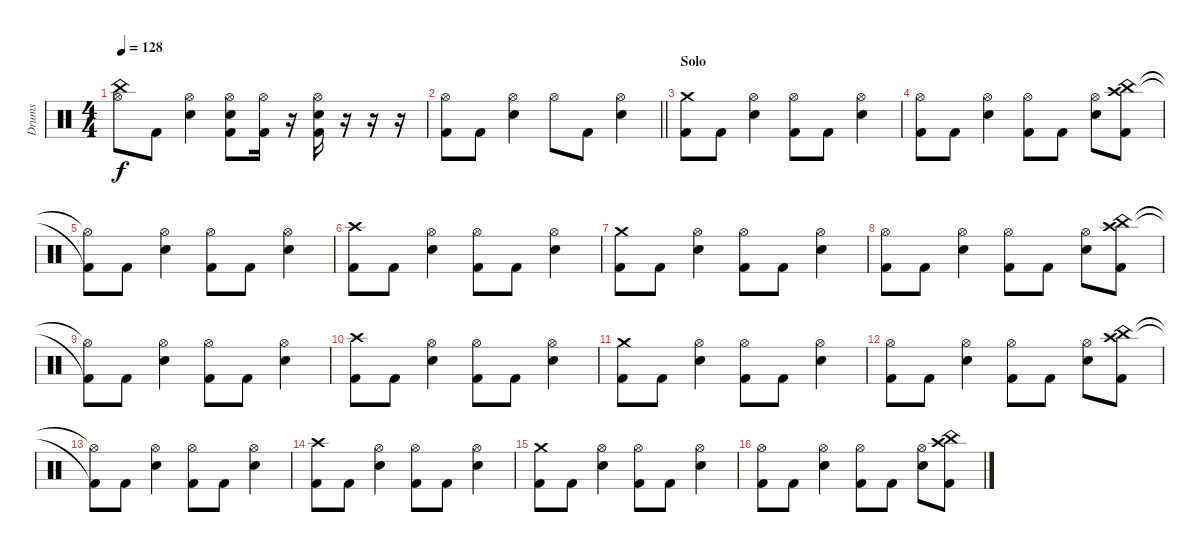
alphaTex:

\track ("Drums" "Drums") {instrument percussion}
\staff {score}
\articulation defaults
\ts (4 4)
\tempo 128
\clef neutral
\ks c
("China (hit)"{t} "Hi-Hat (open)").8{dy f} "Kick (hit) 2".8 ("Hi-Hat (open)" "Electric Snare (hit)").4 ("Electric Snare (hit)" "Hi-Hat (open)" "Kick (hit) 2").8 ("Hi-Hat (open)" "Kick (hit) 2").16 r.16 ("Hi-Hat (open)" "Electric Snare (hit)" "Kick (hit) 2").16 r.16 r.16 r.16 |
\barLineRight lightlight
("Hi-Hat (open)" "Kick (hit) 2").8 "Kick (hit) 2".8 ("Hi-Hat (open)" "Electric Snare (hit)").4 "Hi-Hat (open)".8 "Kick (hit) 2".8 ("Hi-Hat (open)" "Electric Snare (hit)").4 |
\section ("" "Solo")
("Crash medium (hit)" "Kick (hit) 2").8 "Kick (hit) 2".8 ("Hi-Hat (open)" "Electric Snare (hit)").4 ("Hi-Hat (open)" "Kick (hit) 2").8 "Kick (hit) 2".8 ("Hi-Hat (open)" "Electric Snare (hit)").4 |
("Hi-Hat (open)" "Kick (hit) 2").8 "Kick (hit) 2".8 ("Hi-Hat (open)" "Electric Snare (hit)").4 ("Hi-Hat (open)" "Kick (hit) 2").8 "Kick (hit) 2".8 ("Hi-Hat (open)" "Electric Snare (hit)").8 ("China (hit)" "Crash high (hit)" "Kick (hit) 2").8 |
("Hi-Hat (open)"{t} "Kick (hit) 2"{t}).8 "Kick (hit) 2".8 ("Hi-Hat (open)" "Electric Snare (hit)").4 ("Hi-Hat (open)" "Kick (hit) 2").8 "Kick (hit) 2".8 ("Hi-Hat (open)" "Electric Snare (hit)").4 |
("Crash high (hit)" "Kick (hit) 2").8 "Kick (hit) 2".8 ("Hi-Hat (open)" "Electric Snare (hit)").4 ("Hi-Hat (open)" "Kick (hit) 2").8 "Kick (hit) 2".8 ("Hi-Hat (open)" "Electric Snare (hit)").4 |
("Crash medium (hit)" "Kick (hit) 2").8 "Kick (hit) 2".8 ("Hi-Hat (open)" "Electric Snare (hit)").4 ("Hi-Hat (open)" "Kick (hit) 2").8 "Kick (hit) 2".8 ("Hi-Hat (open)" "Electric Snare (hit)").4 |
("Hi-Hat (open)" "Kick (hit) 2").8 "Kick (hit) 2".8 ("Hi-Hat (open)" "Electric Snare (hit)").4 ("Hi-Hat (open)" "Kick (hit) 2").8 "Kick (hit) 2".8 ("Hi-Hat (open)" "Electric Snare (hit)").8 ("China (hit)" "Crash high (hit)" "Kick (hit) 2").8 |
("Hi-Hat (open)"{t} "Kick (hit) 2"{t}).8 "Kick (hit) 2".8 ("Hi-Hat (open)" "Electric Snare (hit)").4 ("Hi-Hat (open)" "Kick (hit) 2").8 "Kick (hit) 2".8 ("Hi-Hat (open)" "Electric Snare (hit)").4 |
("Crash high (hit)" "Kick (hit) 2").8 "Kick (hit) 2".8 ("Hi-Hat (open)" "Electric Snare (hit)").4 ("Hi-Hat (open)" "Kick (hit) 2").8 "Kick (hit) 2".8 ("Hi-Hat (open)" "Electric Snare (hit)").4 |
("Crash medium (hit)" "Kick (hit) 2").8 "Kick (hit) 2".8 ("Hi-Hat (open)" "Electric Snare (hit)").4 ("Hi-Hat (open)" "Kick (hit) 2").8 "Kick (hit) 2".8 ("Hi-Hat (open)" "Electric Snare (hit)").4 |
("Hi-Hat (open)" "Kick (hit) 2").8 "Kick (hit) 2".8 ("Hi-Hat (open)" "Electric Snare (hit)").4 ("Hi-Hat (open)" "Kick (hit) 2").8 "Kick (hit) 2".8 ("Hi-Hat (open)" "Electric Snare (hit)").8 ("China (hit)" "Crash high (hit)" "Kick (hit) 2").8 |
("Hi-Hat (open)"{t} "Kick (hit) 2"{t}).8 "Kick (hit) 2".8 ("Hi-Hat (open)" "Electric Snare (hit)").4 ("Hi-Hat (open)" "Kick (hit) 2").8 "Kick (hit) 2".8 ("Hi-Hat (open)" "Electric Snare (hit)").4 |
("Crash high (hit)" "Kick (hit) 2").8 "Kick (hit) 2".8 ("Hi-Hat (open)" "Electric Snare (hit)").4 ("Hi-Hat (open)" "Kick (hit) 2").8 "Kick (hit) 2".8 ("Hi-Hat (open)" "Electric Snare (hit)").4 |
("Crash medium (hit)" "Kick (hit) 2").8 "Kick (hit) 2".8 ("Hi-Hat (open)" "Electric Snare (hit)").4 ("Hi-Hat (open)" "Kick (hit) 2").8 "Kick (hit) 2".8 ("Hi-Hat (open)" "Electric Snare (hit)").4 |
("Hi-Hat (open)" "Kick (hit) 2").8 "Kick (hit) 2".8 ("Hi-Hat (open)" "Electric Snare (hit)").4 ("Hi-Hat (open)" "Kick (hit) 2").8 "Kick (hit) 2".8 ("Hi-Hat (open)" "Electric Snare (hit)").8 ("China (hit)" "Crash high (hit)" "Kick (hit) 2").8
